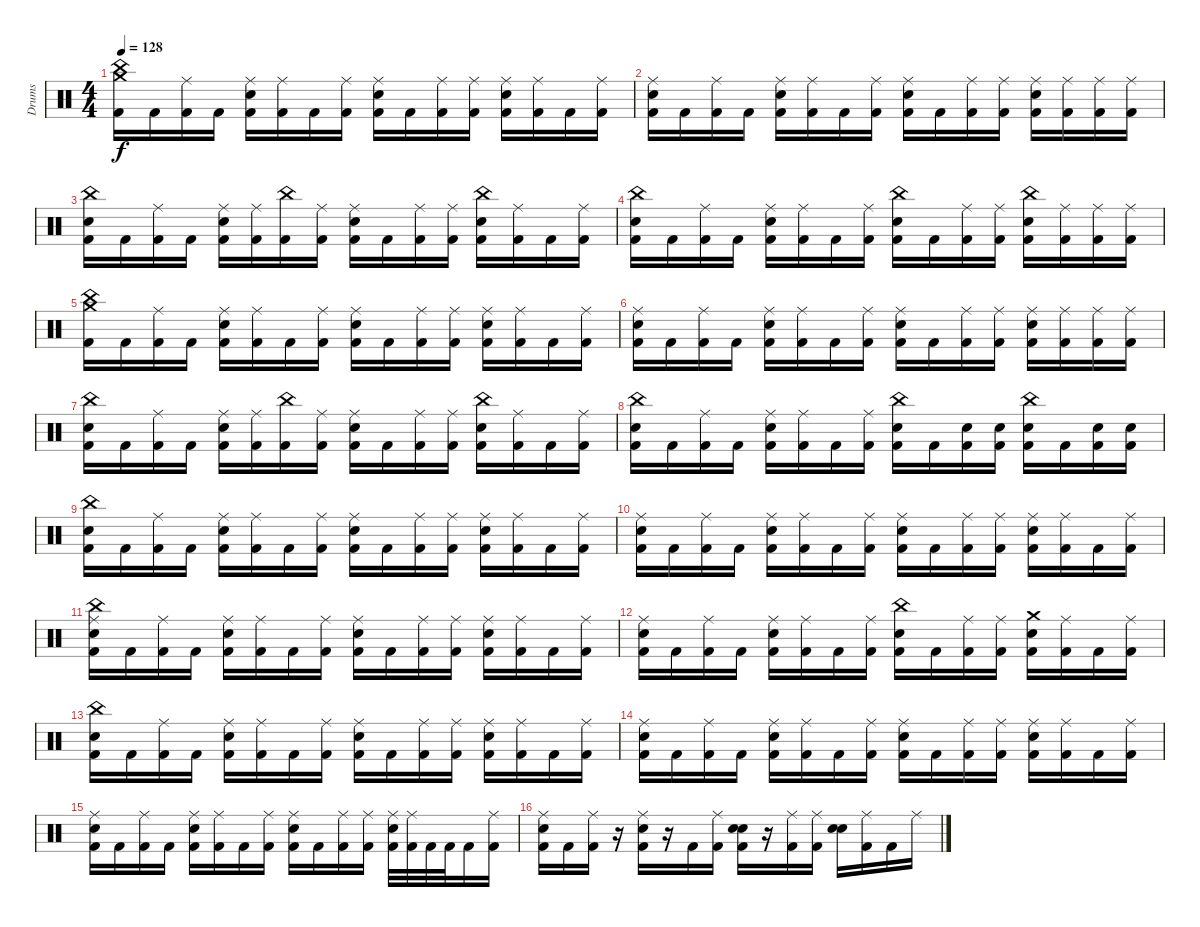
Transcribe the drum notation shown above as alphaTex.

\track ("Drums" "Drums") {instrument percussion}
\staff {score}
\articulation defaults
\ts (4 4)
\tempo 128
\clef neutral
\ks c
("China (hit)" "Crash medium (hit)" "Kick (hit) 2").16{dy f} "Kick (hit) 2".16 ("Ride (middle)" "Kick (hit) 2").16 "Kick (hit) 2".16 ("Snare (hit) 2" "Ride (middle)" "Kick (hit) 2").16 ("Ride (middle)" "Kick (hit) 2").16 "Kick (hit) 2".16 ("Ride (middle)" "Kick (hit) 2").16 ("Snare (hit) 2" "Ride (middle)" "Kick (hit) 2").16 "Kick (hit) 2".16 ("Ride (middle)" "Kick (hit) 2").16 ("Ride (middle)" "Kick (hit) 2").16 ("Snare (hit) 2" "Ride (middle)" "Kick (hit) 2").16 ("Ride (middle)" "Kick (hit) 2").16 "Kick (hit) 2".16 ("Ride (middle)" "Kick (hit) 2").16 |
("Snare (hit) 2" "Ride (middle)" "Kick (hit) 2").16 "Kick (hit) 2".16 ("Ride (middle)" "Kick (hit) 2").16 "Kick (hit) 2".16 ("Snare (hit) 2" "Ride (middle)" "Kick (hit) 2").16 ("Ride (middle)" "Kick (hit) 2").16 "Kick (hit) 2".16 ("Ride (middle)" "Kick (hit) 2").16 ("Snare (hit) 2" "Ride (middle)" "Kick (hit) 2").16 "Kick (hit) 2".16 ("Ride (middle)" "Kick (hit) 2").16 ("Ride (middle)" "Kick (hit) 2").16 ("Snare (hit) 2" "Ride (middle)" "Kick (hit) 2").16 ("Ride (middle)" "Kick (hit) 2").16 ("Ride (middle)" "Kick (hit) 2").16 ("Ride (middle)" "Kick (hit) 2").16 |
("China (hit)" "Snare (hit) 2" "Kick (hit) 2").16 "Kick (hit) 2".16 ("Ride (middle)" "Kick (hit) 2").16 "Kick (hit) 2".16 ("Snare (hit) 2" "Ride (middle)" "Kick (hit) 2").16 ("Ride (middle)" "Kick (hit) 2").16 ("China (hit)" "Kick (hit) 2").16 ("Ride (middle)" "Kick (hit) 2").16 ("Snare (hit) 2" "Ride (middle)" "Kick (hit) 2").16 "Kick (hit) 2".16 ("Ride (middle)" "Kick (hit) 2").16 ("Ride (middle)" "Kick (hit) 2").16 ("China (hit)" "Snare (hit) 2" "Kick (hit) 2").16 ("Ride (middle)" "Kick (hit) 2").16 "Kick (hit) 2".16 ("Ride (middle)" "Kick (hit) 2").16 |
("China (hit)" "Snare (hit) 2" "Kick (hit) 2").16 "Kick (hit) 2".16 ("Ride (middle)" "Kick (hit) 2").16 "Kick (hit) 2".16 ("Snare (hit) 2" "Ride (middle)" "Kick (hit) 2").16 ("Ride (middle)" "Kick (hit) 2").16 "Kick (hit) 2".16 ("Ride (middle)" "Kick (hit) 2").16 ("China (hit)" "Snare (hit) 2" "Kick (hit) 2").16 "Kick (hit) 2".16 ("Ride (middle)" "Kick (hit) 2").16 ("Ride (middle)" "Kick (hit) 2").16 ("China (hit)" "Snare (hit) 2" "Kick (hit) 2").16 ("Ride (middle)" "Kick (hit) 2").16 ("Ride (middle)" "Kick (hit) 2").16 ("Ride (middle)" "Kick (hit) 2").16 |
("China (hit)" "Crash medium (hit)" "Kick (hit) 2").16 "Kick (hit) 2".16 ("Ride (middle)" "Kick (hit) 2").16 "Kick (hit) 2".16 ("Snare (hit) 2" "Ride (middle)" "Kick (hit) 2").16 ("Ride (middle)" "Kick (hit) 2").16 "Kick (hit) 2".16 ("Ride (middle)" "Kick (hit) 2").16 ("Snare (hit) 2" "Ride (middle)" "Kick (hit) 2").16 "Kick (hit) 2".16 ("Ride (middle)" "Kick (hit) 2").16 ("Ride (middle)" "Kick (hit) 2").16 ("Snare (hit) 2" "Ride (middle)" "Kick (hit) 2").16 ("Ride (middle)" "Kick (hit) 2").16 "Kick (hit) 2".16 ("Ride (middle)" "Kick (hit) 2").16 |
("Snare (hit) 2" "Ride (middle)" "Kick (hit) 2").16 "Kick (hit) 2".16 ("Ride (middle)" "Kick (hit) 2").16 "Kick (hit) 2".16 ("Snare (hit) 2" "Ride (middle)" "Kick (hit) 2").16 ("Ride (middle)" "Kick (hit) 2").16 "Kick (hit) 2".16 ("Ride (middle)" "Kick (hit) 2").16 ("Snare (hit) 2" "Ride (middle)" "Kick (hit) 2").16 "Kick (hit) 2".16 ("Ride (middle)" "Kick (hit) 2").16 ("Ride (middle)" "Kick (hit) 2").16 ("Snare (hit) 2" "Ride (middle)" "Kick (hit) 2").16 ("Ride (middle)" "Kick (hit) 2").16 ("Ride (middle)" "Kick (hit) 2").16 ("Ride (middle)" "Kick (hit) 2").16 |
("China (hit)" "Snare (hit) 2" "Kick (hit) 2").16 "Kick (hit) 2".16 ("Ride (middle)" "Kick (hit) 2").16 "Kick (hit) 2".16 ("Snare (hit) 2" "Ride (middle)" "Kick (hit) 2").16 ("Ride (middle)" "Kick (hit) 2").16 ("China (hit)" "Kick (hit) 2").16 ("Ride (middle)" "Kick (hit) 2").16 ("Snare (hit) 2" "Ride (middle)" "Kick (hit) 2").16 "Kick (hit) 2".16 ("Ride (middle)" "Kick (hit) 2").16 ("Ride (middle)" "Kick (hit) 2").16 ("China (hit)" "Snare (hit) 2" "Kick (hit) 2").16 ("Ride (middle)" "Kick (hit) 2").16 "Kick (hit) 2".16 ("Ride (middle)" "Kick (hit) 2").16 |
("China (hit)" "Snare (hit) 2" "Kick (hit) 2").16 "Kick (hit) 2".16 ("Ride (middle)" "Kick (hit) 2").16 "Kick (hit) 2".16 ("Snare (hit) 2" "Ride (middle)" "Kick (hit) 2").16 ("Ride (middle)" "Kick (hit) 2").16 "Kick (hit) 2".16 ("Ride (middle)" "Kick (hit) 2").16 ("China (hit)" "Snare (hit) 2" "Kick (hit) 2").16 "Kick (hit) 2".16 ("Snare (hit) 2" "Kick (hit) 2").16 ("Snare (hit) 2" "Kick (hit) 2").16 ("China (hit)" "Snare (hit) 2" "Kick (hit) 2").16 "Kick (hit) 2".16 ("Snare (hit) 2" "Kick (hit) 2").16 ("Snare (hit) 2" "Kick (hit) 2").16 |
("China (hit)" "Snare (hit) 2" "Kick (hit) 2").16 "Kick (hit) 2".16 ("Ride (middle)" "Kick (hit) 2").16 "Kick (hit) 2".16 ("Snare (hit) 2" "Ride (middle)" "Kick (hit) 2").16 ("Ride (middle)" "Kick (hit) 2").16 "Kick (hit) 2".16 ("Ride (middle)" "Kick (hit) 2").16 ("Snare (hit) 2" "Ride (middle)" "Kick (hit) 2").16 "Kick (hit) 2".16 ("Ride (middle)" "Kick (hit) 2").16 ("Ride (middle)" "Kick (hit) 2").16 ("Snare (hit) 2" "Ride (middle)" "Kick (hit) 2").16 ("Ride (middle)" "Kick (hit) 2").16 "Kick (hit) 2".16 ("Ride (middle)" "Kick (hit) 2").16 |
("Snare (hit) 2" "Ride (middle)" "Kick (hit) 2").16 "Kick (hit) 2".16 ("Ride (middle)" "Kick (hit) 2").16 "Kick (hit) 2".16 ("Snare (hit) 2" "Ride (middle)" "Kick (hit) 2").16 ("Ride (middle)" "Kick (hit) 2").16 "Kick (hit) 2".16 ("Ride (middle)" "Kick (hit) 2").16 ("Snare (hit) 2" "Ride (middle)" "Kick (hit) 2").16 "Kick (hit) 2".16 ("Ride (middle)" "Kick (hit) 2").16 ("Ride (middle)" "Kick (hit) 2").16 ("Snare (hit) 2" "Ride (middle)" "Kick (hit) 2").16 ("Ride (middle)" "Kick (hit) 2").16 "Kick (hit) 2".16 ("Ride (middle)" "Kick (hit) 2").16 |
("China (hit)" "Snare (hit) 2" "Ride (middle)" "Kick (hit) 2").16 "Kick (hit) 2".16 ("Ride (middle)" "Kick (hit) 2").16 "Kick (hit) 2".16 ("Snare (hit) 2" "Ride (middle)" "Kick (hit) 2").16 ("Ride (middle)" "Kick (hit) 2").16 "Kick (hit) 2".16 ("Ride (middle)" "Kick (hit) 2").16 ("Snare (hit) 2" "Ride (middle)" "Kick (hit) 2").16 "Kick (hit) 2".16 ("Ride (middle)" "Kick (hit) 2").16 ("Ride (middle)" "Kick (hit) 2").16 ("Snare (hit) 2" "Ride (middle)" "Kick (hit) 2").16 ("Ride (middle)" "Kick (hit) 2").16 "Kick (hit) 2".16 ("Ride (middle)" "Kick (hit) 2").16 |
("Snare (hit) 2" "Ride (middle)" "Kick (hit) 2").16 "Kick (hit) 2".16 ("Ride (middle)" "Kick (hit) 2").16 "Kick (hit) 2".16 ("Snare (hit) 2" "Ride (middle)" "Kick (hit) 2").16 ("Ride (middle)" "Kick (hit) 2").16 "Kick (hit) 2".16 ("Ride (middle)" "Kick (hit) 2").16 ("China (hit)" "Snare (hit) 2" "Kick (hit) 2").16 "Kick (hit) 2".16 ("Ride (middle)" "Kick (hit) 2").16 ("Ride (middle)" "Kick (hit) 2").16 ("Crash medium (hit)" "Snare (hit) 2" "Kick (hit) 2").16 ("Ride (middle)" "Kick (hit) 2").16 "Kick (hit) 2".16 ("Ride (middle)" "Kick (hit) 2").16 |
("China (hit)" "Snare (hit) 2" "Kick (hit) 2").16 "Kick (hit) 2".16 ("Ride (middle)" "Kick (hit) 2").16 "Kick (hit) 2".16 ("Snare (hit) 2" "Ride (middle)" "Kick (hit) 2").16 ("Ride (middle)" "Kick (hit) 2").16 "Kick (hit) 2".16 ("Ride (middle)" "Kick (hit) 2").16 ("Snare (hit) 2" "Ride (middle)" "Kick (hit) 2").16 "Kick (hit) 2".16 ("Ride (middle)" "Kick (hit) 2").16 ("Ride (middle)" "Kick (hit) 2").16 ("Snare (hit) 2" "Ride (middle)" "Kick (hit) 2").16 ("Ride (middle)" "Kick (hit) 2").16 "Kick (hit) 2".16 ("Ride (middle)" "Kick (hit) 2").16 |
("Snare (hit) 2" "Ride (middle)" "Kick (hit) 2").16 "Kick (hit) 2".16 ("Ride (middle)" "Kick (hit) 2").16 "Kick (hit) 2".16 ("Snare (hit) 2" "Ride (middle)" "Kick (hit) 2").16 ("Ride (middle)" "Kick (hit) 2").16 "Kick (hit) 2".16 ("Ride (middle)" "Kick (hit) 2").16 ("Snare (hit) 2" "Ride (middle)" "Kick (hit) 2").16 "Kick (hit) 2".16 ("Ride (middle)" "Kick (hit) 2").16 ("Ride (middle)" "Kick (hit) 2").16 ("Snare (hit) 2" "Ride (middle)" "Kick (hit) 2").16 ("Ride (middle)" "Kick (hit) 2").16 "Kick (hit) 2".16 ("Ride (middle)" "Kick (hit) 2").16 |
("Snare (hit) 2" "Ride (middle)" "Kick (hit) 2").16 "Kick (hit) 2".16 ("Ride (middle)" "Kick (hit) 2").16 "Kick (hit) 2".16 ("Snare (hit) 2" "Ride (middle)" "Kick (hit) 2").16 ("Ride (middle)" "Kick (hit) 2").16 "Kick (hit) 2".16 ("Ride (middle)" "Kick (hit) 2").16 ("Snare (hit) 2" "Ride (middle)" "Kick (hit) 2").16 "Kick (hit) 2".16 ("Ride (middle)" "Kick (hit) 2").16 ("Ride (middle)" "Kick (hit) 2").16 ("Snare (hit) 2" "Ride (middle)" "Kick (hit) 2").32 ("Ride (middle)" "Kick (hit) 2").32 "Kick (hit) 2".32 "Kick (hit) 2".32 "Kick (hit) 2".16 ("Ride (middle)" "Kick (hit) 2").16 |
("Snare (hit) 2" "Ride (middle)" "Kick (hit) 2").16 "Kick (hit) 2".16 ("Ride (middle)" "Kick (hit) 2").16 r.16 ("Snare (hit) 2" "Ride (middle)" "Kick (hit) 2").16 r.16 "Kick (hit) 2".16 ("Ride (middle)" "Kick (hit) 2").16 ("Snare (hit) 2" "Snare (hit) 2" "Kick (hit) 2").16 r.16 ("Ride (middle)" "Kick (hit) 2").16 ("Ride (middle)" "Kick (hit) 2").16 ("Snare (hit) 2" "Snare (hit) 2").16 ("Ride (middle)" "Kick (hit) 2").16 "Kick (hit) 2".16 "Ride (middle)".16
